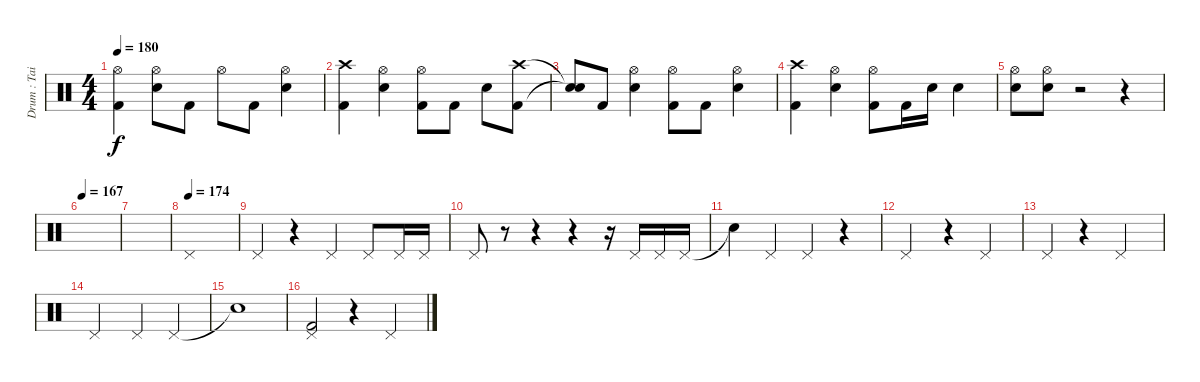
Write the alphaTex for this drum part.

\track ("Drum : Tainaka Ritsu" "Drum : Tai") {instrument percussion}
\staff {score}
\articulation defaults
\ts (4 4)
\tempo 180
\clef neutral
\ks c
("Hi-Hat (open)" "Kick (hit) 2").4{dy f} ("Hi-Hat (open)" "Snare (hit) 2").8 "Kick (hit) 2".8 "Hi-Hat (open)".8 "Kick (hit) 2".8 ("Hi-Hat (open)" "Snare (hit) 2").4 |
("Crash high (hit)" "Kick (hit) 2").4 ("Hi-Hat (open)" "Snare (hit) 2").4 ("Hi-Hat (open)" "Kick (hit) 2").8 "Kick (hit) 2".8 "Snare (hit) 2".8 ("Crash high (hit)" "Kick (hit) 2").8 |
("Snare (hit)"{t} "Snare (hit)"{t}).8 "Kick (hit) 2".8 ("Hi-Hat (open)" "Snare (hit) 2").4 ("Hi-Hat (open)" "Kick (hit) 2").8 "Kick (hit) 2".8 ("Hi-Hat (open)" "Snare (hit) 2").4 |
("Crash high (hit)" "Kick (hit) 2").4 ("Hi-Hat (open)" "Snare (hit) 2").4 ("Hi-Hat (open)" "Kick (hit) 2").8 "Kick (hit) 2".16 "Snare (hit) 2".16 "Snare (hit) 2".4 |
("Hi-Hat (open)" "Snare (hit) 2").8 ("Hi-Hat (open)" "Snare (hit) 2").8 r.2 r.4 |
\tempo 167
|
|
\tempo (174)
"Pedal Hi-Hat (hit)".1 |
"Pedal Hi-Hat (hit)".4 r.4 "Pedal Hi-Hat (hit)".4 "Pedal Hi-Hat (hit)".8 "Pedal Hi-Hat (hit)".16 "Pedal Hi-Hat (hit)".16 |
"Pedal Hi-Hat (hit)".8 r.8 r.4 r.4 r.16 "Pedal Hi-Hat (hit)".16 "Pedal Hi-Hat (hit)".16 "Pedal Hi-Hat (hit)".16 |
"Snare (hit)"{t}.4 "Pedal Hi-Hat (hit)".4 "Pedal Hi-Hat (hit)".4 r.4 |
"Pedal Hi-Hat (hit)".2 r.4 "Pedal Hi-Hat (hit)".4 |
"Pedal Hi-Hat (hit)".4 r.4 "Pedal Hi-Hat (hit)".2 |
"Pedal Hi-Hat (hit)".2 "Pedal Hi-Hat (hit)".4 "Pedal Hi-Hat (hit)".4 |
"Snare (hit)"{t}.1 |
("Pedal Hi-Hat (hit)" "Kick (hit) 2").2 r.4 "Pedal Hi-Hat (hit)".4
